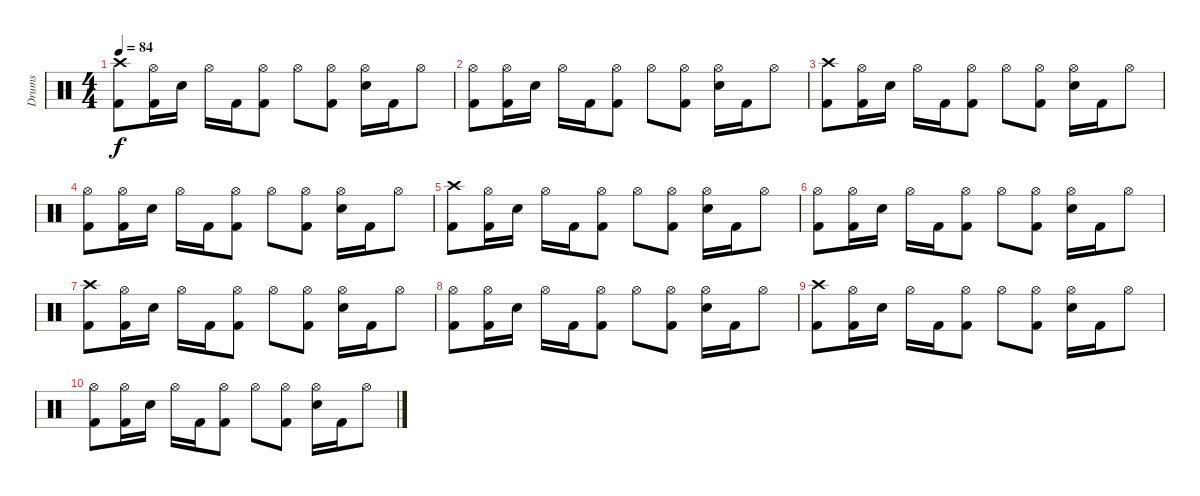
\track ("Drums" "Drums") {instrument percussion}
\staff {score}
\articulation defaults
\ts (4 4)
\tempo 84
\clef neutral
\ks c
("Crash high (hit)" "Kick (hit) 2").8{dy f} ("Hi-Hat (open)" "Kick (hit) 2").16 "Electric Snare (hit)".16 "Hi-Hat (open)".16 "Kick (hit) 2".16 ("Hi-Hat (open)" "Kick (hit) 2").8 "Hi-Hat (open)".8 ("Hi-Hat (open)" "Kick (hit) 2").8 ("Hi-Hat (open)" "Electric Snare (hit)").16 "Kick (hit) 2".16 "Hi-Hat (open)".8 |
("Hi-Hat (open)" "Kick (hit) 2").8 ("Hi-Hat (open)" "Kick (hit) 2").16 "Electric Snare (hit)".16 "Hi-Hat (open)".16 "Kick (hit) 2".16 ("Hi-Hat (open)" "Kick (hit) 2").8 "Hi-Hat (open)".8 ("Hi-Hat (open)" "Kick (hit) 2").8 ("Hi-Hat (open)" "Electric Snare (hit)").16 "Kick (hit) 2".16 "Hi-Hat (open)".8 |
("Crash high (hit)" "Kick (hit) 2").8 ("Hi-Hat (open)" "Kick (hit) 2").16 "Electric Snare (hit)".16 "Hi-Hat (open)".16 "Kick (hit) 2".16 ("Hi-Hat (open)" "Kick (hit) 2").8 "Hi-Hat (open)".8 ("Hi-Hat (open)" "Kick (hit) 2").8 ("Hi-Hat (open)" "Electric Snare (hit)").16 "Kick (hit) 2".16 "Hi-Hat (open)".8 |
("Hi-Hat (open)" "Kick (hit) 2").8 ("Hi-Hat (open)" "Kick (hit) 2").16 "Electric Snare (hit)".16 "Hi-Hat (open)".16 "Kick (hit) 2".16 ("Hi-Hat (open)" "Kick (hit) 2").8 "Hi-Hat (open)".8 ("Hi-Hat (open)" "Kick (hit) 2").8 ("Hi-Hat (open)" "Electric Snare (hit)").16 "Kick (hit) 2".16 "Hi-Hat (open)".8 |
("Crash high (hit)" "Kick (hit) 2").8{volume 10} ("Hi-Hat (open)" "Kick (hit) 2").16 "Electric Snare (hit)".16 "Hi-Hat (open)".16 "Kick (hit) 2".16 ("Hi-Hat (open)" "Kick (hit) 2").8 "Hi-Hat (open)".8 ("Hi-Hat (open)" "Kick (hit) 2").8 ("Hi-Hat (open)" "Electric Snare (hit)").16 "Kick (hit) 2".16 "Hi-Hat (open)".8 |
("Hi-Hat (open)" "Kick (hit) 2").8 ("Hi-Hat (open)" "Kick (hit) 2").16 "Electric Snare (hit)".16 "Hi-Hat (open)".16 "Kick (hit) 2".16 ("Hi-Hat (open)" "Kick (hit) 2").8 "Hi-Hat (open)".8 ("Hi-Hat (open)" "Kick (hit) 2").8 ("Hi-Hat (open)" "Electric Snare (hit)").16 "Kick (hit) 2".16 "Hi-Hat (open)".8 |
("Crash high (hit)" "Kick (hit) 2").8{volume 6} ("Hi-Hat (open)" "Kick (hit) 2").16 "Electric Snare (hit)".16 "Hi-Hat (open)".16 "Kick (hit) 2".16 ("Hi-Hat (open)" "Kick (hit) 2").8 "Hi-Hat (open)".8 ("Hi-Hat (open)" "Kick (hit) 2").8 ("Hi-Hat (open)" "Electric Snare (hit)").16 "Kick (hit) 2".16 "Hi-Hat (open)".8 |
("Hi-Hat (open)" "Kick (hit) 2").8 ("Hi-Hat (open)" "Kick (hit) 2").16 "Electric Snare (hit)".16 "Hi-Hat (open)".16 "Kick (hit) 2".16 ("Hi-Hat (open)" "Kick (hit) 2").8 "Hi-Hat (open)".8 ("Hi-Hat (open)" "Kick (hit) 2").8 ("Hi-Hat (open)" "Electric Snare (hit)").16 "Kick (hit) 2".16 "Hi-Hat (open)".8 |
("Crash high (hit)" "Kick (hit) 2").8{volume 2} ("Hi-Hat (open)" "Kick (hit) 2").16 "Electric Snare (hit)".16 "Hi-Hat (open)".16 "Kick (hit) 2".16 ("Hi-Hat (open)" "Kick (hit) 2").8 "Hi-Hat (open)".8 ("Hi-Hat (open)" "Kick (hit) 2").8 ("Hi-Hat (open)" "Electric Snare (hit)").16 "Kick (hit) 2".16 "Hi-Hat (open)".8 |
("Hi-Hat (open)" "Kick (hit) 2").8 ("Hi-Hat (open)" "Kick (hit) 2").16 "Electric Snare (hit)".16 "Hi-Hat (open)".16 "Kick (hit) 2".16 ("Hi-Hat (open)" "Kick (hit) 2").8 "Hi-Hat (open)".8 ("Hi-Hat (open)" "Kick (hit) 2").8 ("Hi-Hat (open)" "Electric Snare (hit)").16 "Kick (hit) 2".16 "Hi-Hat (open)".8
